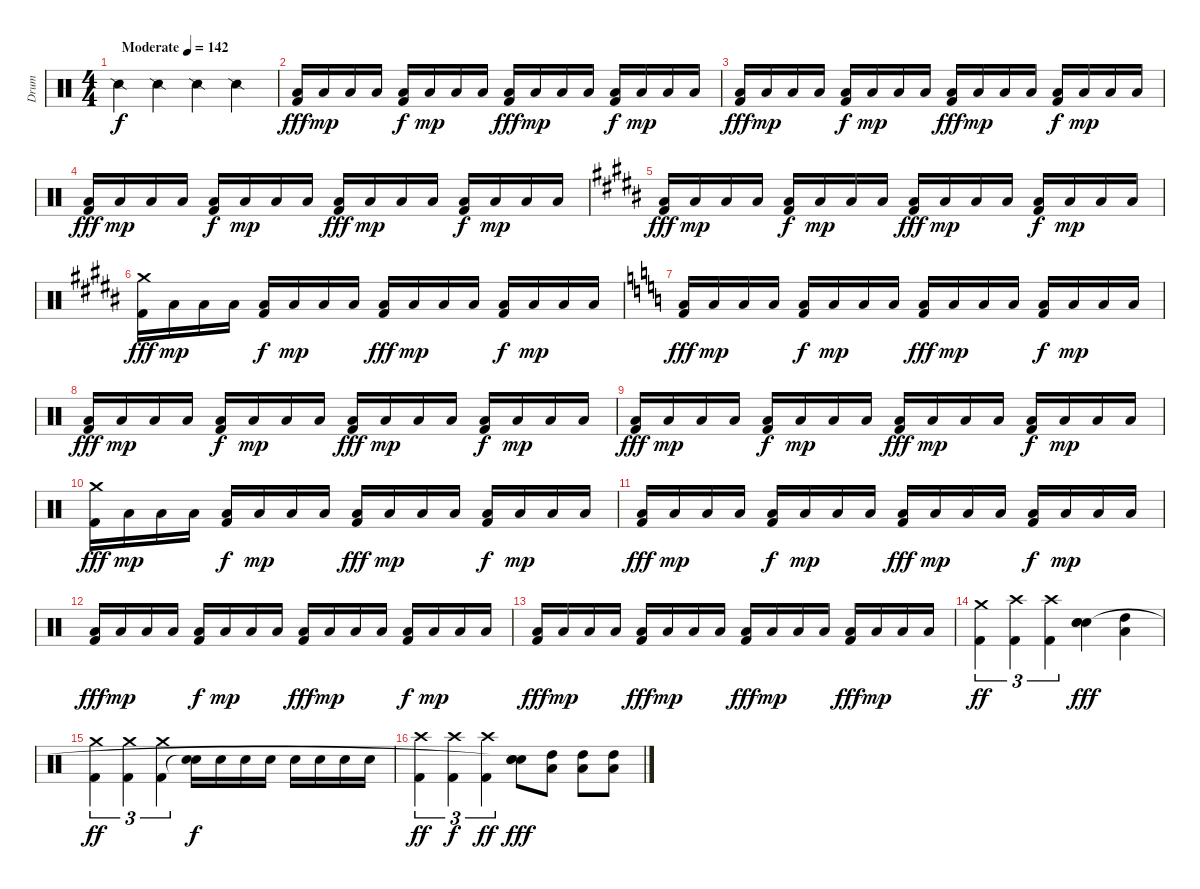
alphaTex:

\track ("Drum" "Drum") {instrument percussion}
\staff {score}
\articulation defaults
\ts (4 4)
\tempo (142 "Moderate")
\clef neutral
\ks c "Snare (side stick) 2".4{dy f} "Snare (side stick) 2".4 "Snare (side stick) 2".4 "Snare (side stick) 2".4
|
("Low Tom (hit)" "Kick (hit) 2").16{dy fff} "Low Tom (hit)".16{dy mp} "Low Tom (hit)".16 "Low Tom (hit)".16 ("Low Tom (hit)" "Kick (hit) 2").16{dy f} "Low Tom (hit)".16{dy mp} "Low Tom (hit)".16 "Low Tom (hit)".16 ("Low Tom (hit)" "Kick (hit) 2").16{dy fff} "Low Tom (hit)".16{dy mp} "Low Tom (hit)".16 "Low Tom (hit)".16 ("Low Tom (hit)" "Kick (hit) 2").16{dy f} "Low Tom (hit)".16{dy mp} "Low Tom (hit)".16 "Low Tom (hit)".16 |
("Low Tom (hit)" "Kick (hit) 2").16{dy fff} "Low Tom (hit)".16{dy mp} "Low Tom (hit)".16 "Low Tom (hit)".16 ("Low Tom (hit)" "Kick (hit) 2").16{dy f} "Low Tom (hit)".16{dy mp} "Low Tom (hit)".16 "Low Tom (hit)".16 ("Low Tom (hit)" "Kick (hit) 2").16{dy fff} "Low Tom (hit)".16{dy mp} "Low Tom (hit)".16 "Low Tom (hit)".16 ("Low Tom (hit)" "Kick (hit) 2").16{dy f} "Low Tom (hit)".16{dy mp} "Low Tom (hit)".16 "Low Tom (hit)".16 |
("Low Tom (hit)" "Kick (hit) 2").16{dy fff} "Low Tom (hit)".16{dy mp} "Low Tom (hit)".16 "Low Tom (hit)".16 ("Low Tom (hit)" "Kick (hit) 2").16{dy f} "Low Tom (hit)".16{dy mp} "Low Tom (hit)".16 "Low Tom (hit)".16 ("Low Tom (hit)" "Kick (hit) 2").16{dy fff} "Low Tom (hit)".16{dy mp} "Low Tom (hit)".16 "Low Tom (hit)".16 ("Low Tom (hit)" "Kick (hit) 2").16{dy f} "Low Tom (hit)".16{dy mp} "Low Tom (hit)".16 "Low Tom (hit)".16 |
\ks b
("Low Tom (hit)" "Kick (hit) 2").16{dy fff} "Low Tom (hit)".16{dy mp} "Low Tom (hit)".16 "Low Tom (hit)".16 ("Low Tom (hit)" "Kick (hit) 2").16{dy f} "Low Tom (hit)".16{dy mp} "Low Tom (hit)".16 "Low Tom (hit)".16 ("Low Tom (hit)" "Kick (hit) 2").16{dy fff} "Low Tom (hit)".16{dy mp} "Low Tom (hit)".16 "Low Tom (hit)".16 ("Low Tom (hit)" "Kick (hit) 2").16{dy f} "Low Tom (hit)".16{dy mp} "Low Tom (hit)".16 "Low Tom (hit)".16 |
("Crash medium (hit)" "Kick (hit) 2").16{dy fff} "Low Tom (hit)".16{dy mp} "Low Tom (hit)".16 "Low Tom (hit)".16 ("Low Tom (hit)" "Kick (hit) 2").16{dy f} "Low Tom (hit)".16{dy mp} "Low Tom (hit)".16 "Low Tom (hit)".16 ("Low Tom (hit)" "Kick (hit) 2").16{dy fff} "Low Tom (hit)".16{dy mp} "Low Tom (hit)".16 "Low Tom (hit)".16 ("Low Tom (hit)" "Kick (hit) 2").16{dy f} "Low Tom (hit)".16{dy mp} "Low Tom (hit)".16 "Low Tom (hit)".16 |
\ks c
("Low Tom (hit)" "Kick (hit) 2").16{dy fff} "Low Tom (hit)".16{dy mp} "Low Tom (hit)".16 "Low Tom (hit)".16 ("Low Tom (hit)" "Kick (hit) 2").16{dy f} "Low Tom (hit)".16{dy mp} "Low Tom (hit)".16 "Low Tom (hit)".16 ("Low Tom (hit)" "Kick (hit) 2").16{dy fff} "Low Tom (hit)".16{dy mp} "Low Tom (hit)".16 "Low Tom (hit)".16 ("Low Tom (hit)" "Kick (hit) 2").16{dy f} "Low Tom (hit)".16{dy mp} "Low Tom (hit)".16 "Low Tom (hit)".16 |
("Low Tom (hit)" "Kick (hit) 2").16{dy fff} "Low Tom (hit)".16{dy mp} "Low Tom (hit)".16 "Low Tom (hit)".16 ("Low Tom (hit)" "Kick (hit) 2").16{dy f} "Low Tom (hit)".16{dy mp} "Low Tom (hit)".16 "Low Tom (hit)".16 ("Low Tom (hit)" "Kick (hit) 2").16{dy fff} "Low Tom (hit)".16{dy mp} "Low Tom (hit)".16 "Low Tom (hit)".16 ("Low Tom (hit)" "Kick (hit) 2").16{dy f} "Low Tom (hit)".16{dy mp} "Low Tom (hit)".16 "Low Tom (hit)".16 |
("Low Tom (hit)" "Kick (hit) 2").16{dy fff} "Low Tom (hit)".16{dy mp} "Low Tom (hit)".16 "Low Tom (hit)".16 ("Low Tom (hit)" "Kick (hit) 2").16{dy f} "Low Tom (hit)".16{dy mp} "Low Tom (hit)".16 "Low Tom (hit)".16 ("Low Tom (hit)" "Kick (hit) 2").16{dy fff} "Low Tom (hit)".16{dy mp} "Low Tom (hit)".16 "Low Tom (hit)".16 ("Low Tom (hit)" "Kick (hit) 2").16{dy f} "Low Tom (hit)".16{dy mp} "Low Tom (hit)".16 "Low Tom (hit)".16 |
("Crash medium (hit)" "Kick (hit) 2").16{dy fff} "Low Tom (hit)".16{dy mp} "Low Tom (hit)".16 "Low Tom (hit)".16 ("Low Tom (hit)" "Kick (hit) 2").16{dy f} "Low Tom (hit)".16{dy mp} "Low Tom (hit)".16 "Low Tom (hit)".16 ("Low Tom (hit)" "Kick (hit) 2").16{dy fff} "Low Tom (hit)".16{dy mp} "Low Tom (hit)".16 "Low Tom (hit)".16 ("Low Tom (hit)" "Kick (hit) 2").16{dy f} "Low Tom (hit)".16{dy mp} "Low Tom (hit)".16 "Low Tom (hit)".16 |
("Low Tom (hit)" "Kick (hit) 2").16{dy fff} "Low Tom (hit)".16{dy mp} "Low Tom (hit)".16 "Low Tom (hit)".16 ("Low Tom (hit)" "Kick (hit) 2").16{dy f} "Low Tom (hit)".16{dy mp} "Low Tom (hit)".16 "Low Tom (hit)".16 ("Low Tom (hit)" "Kick (hit) 2").16{dy fff} "Low Tom (hit)".16{dy mp} "Low Tom (hit)".16 "Low Tom (hit)".16 ("Low Tom (hit)" "Kick (hit) 2").16{dy f} "Low Tom (hit)".16{dy mp} "Low Tom (hit)".16 "Low Tom (hit)".16 |
("Low Tom (hit)" "Kick (hit) 2").16{dy fff} "Low Tom (hit)".16{dy mp} "Low Tom (hit)".16 "Low Tom (hit)".16 ("Low Tom (hit)" "Kick (hit) 2").16{dy f} "Low Tom (hit)".16{dy mp} "Low Tom (hit)".16 "Low Tom (hit)".16 ("Low Tom (hit)" "Kick (hit) 2").16{dy fff} "Low Tom (hit)".16{dy mp} "Low Tom (hit)".16 "Low Tom (hit)".16 ("Low Tom (hit)" "Kick (hit) 2").16{dy f} "Low Tom (hit)".16{dy mp} "Low Tom (hit)".16 "Low Tom (hit)".16 |
("Low Tom (hit)" "Kick (hit) 2").16{dy fff} "Low Tom (hit)".16{dy mp} "Low Tom (hit)".16 "Low Tom (hit)".16 ("Low Tom (hit)" "Kick (hit) 2").16{dy fff} "Low Tom (hit)".16{dy mp} "Low Tom (hit)".16 "Low Tom (hit)".16 ("Low Tom (hit)" "Kick (hit) 2").16{dy fff} "Low Tom (hit)".16{dy mp} "Low Tom (hit)".16 "Low Tom (hit)".16 ("Low Tom (hit)" "Kick (hit) 2").16{dy fff} "Low Tom (hit)".16{dy mp} "Low Tom (hit)".16 "Low Tom (hit)".16 |
("Crash medium (hit)" "Kick (hit) 2").4{tu (3 2) dy ff} ("Crash high (hit)" "Kick (hit) 2").4{tu (3 2)} ("Crash high (hit)" "Kick (hit) 2").4{tu (3 2)} ("Electric Snare (hit)" "Electric Snare (hit)" "Snare (hit)").4{bu 240 dy fff} ("High Tom (hit)" "Low Floor Tom (hit)").4 |
("Crash medium (hit)" "Kick (hit) 2").4{tu (3 2) dy ff} ("Crash medium (hit)" "Kick (hit) 2").4{tu (3 2)} ("Crash medium (hit)" "Kick (hit) 2").4{tu (3 2)} ("Electric Snare (hit)" "Snare (hit)"{t}).16{dy f} "Electric Snare (hit)".16 "Electric Snare (hit)".16 "Electric Snare (hit)".16 "Electric Snare (hit)".16 "Electric Snare (hit)".16 "Electric Snare (hit)".16 "Electric Snare (hit)".16 |
("Crash high (hit)" "Kick (hit) 2").4{tu (3 2) dy ff} ("Crash high (hit)" "Kick (hit) 2").4{tu (3 2) dy f} ("Crash high (hit)" "Kick (hit) 2").4{tu (3 2) dy ff} ("Electric Snare (hit)" "Electric Snare (hit)" "Snare (hit)"{t}).8{bu 240 dy fff} ("High Tom (hit)" "Low Floor Tom (hit)").8 ("High Tom (hit)" "Low Floor Tom (hit)").8 ("High Tom (hit)" "Low Floor Tom (hit)").8
